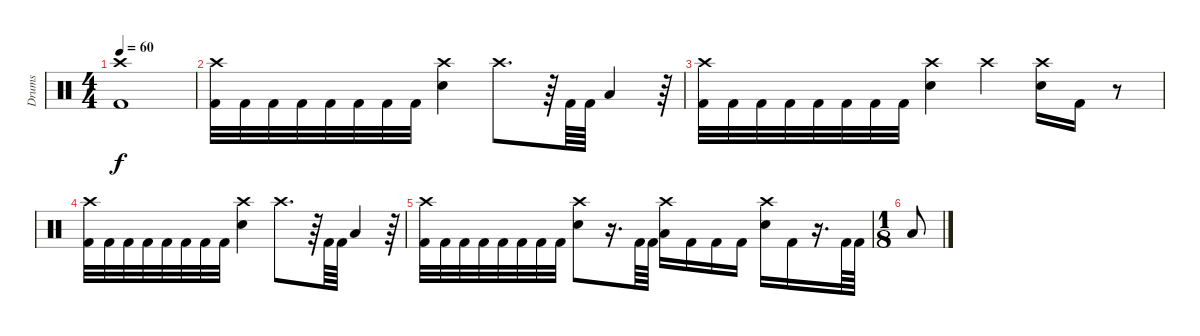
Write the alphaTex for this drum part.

\track ("Drums" "Drums") {instrument percussion}
\staff {score}
\articulation defaults
\ts (4 4)
\tempo 60
\clef neutral
\ks c
("Crash high (hit)" "Kick (hit) 2").1{dy f} |
("Crash high (hit)" "Kick (hit) 2").32 "Kick (hit) 2".32 "Kick (hit) 2".32 "Kick (hit) 2".32 "Kick (hit) 2".32 "Kick (hit) 2".32 "Kick (hit) 2".32 "Kick (hit) 2".32 ("Crash high (hit)" "Snare (hit) 2").4 "Crash high (hit)".8{d} r.64 "Kick (hit) 2".64 "Kick (hit) 2".64 "Low Floor Tom (hit)".4 r.64 |
("Crash high (hit)" "Kick (hit) 2").32 "Kick (hit) 2".32 "Kick (hit) 2".32 "Kick (hit) 2".32 "Kick (hit) 2".32 "Kick (hit) 2".32 "Kick (hit) 2".32 "Kick (hit) 2".32 ("Crash high (hit)" "Snare (hit) 2").4 "Crash high (hit)".4 ("Crash high (hit)" "Snare (hit) 2").16 "Kick (hit) 2".16 r.8 |
("Crash high (hit)" "Kick (hit) 2").32 "Kick (hit) 2".32 "Kick (hit) 2".32 "Kick (hit) 2".32 "Kick (hit) 2".32 "Kick (hit) 2".32 "Kick (hit) 2".32 "Kick (hit) 2".32 ("Crash high (hit)" "Snare (hit) 2").4 "Crash high (hit)".8{d} r.64 "Kick (hit) 2".64 "Kick (hit) 2".64 "Low Floor Tom (hit)".4 r.64 |
("Crash high (hit)" "Kick (hit) 2").32 "Kick (hit) 2".32 "Kick (hit) 2".32 "Kick (hit) 2".32 "Kick (hit) 2".32 "Kick (hit) 2".32 "Kick (hit) 2".32 "Kick (hit) 2".32 ("Crash high (hit)" "Snare (hit) 2").8 r.16{d} "Kick (hit) 2".64 "Kick (hit) 2".64 ("Crash high (hit)" "Low Floor Tom (hit)").16 "Kick (hit) 2".16 "Kick (hit) 2".16 "Kick (hit) 2".16 ("Crash high (hit)" "Snare (hit) 2").16 "Kick (hit) 2".16 r.16{d} "Kick (hit) 2".64 "Kick (hit) 2".64 |
\ts (1 8)
"Low Floor Tom (hit)".8
